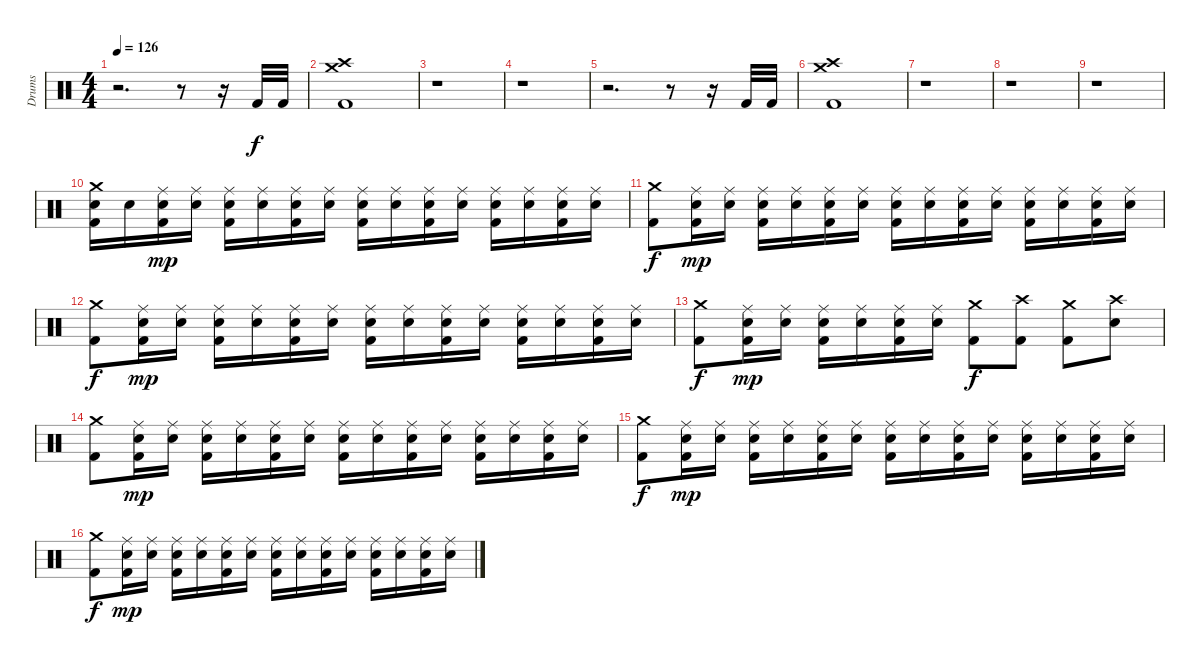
\track ("Drums" "Drums") {instrument percussion}
\staff {score}
\articulation defaults
\ts (4 4)
\tempo 126
\clef neutral
\ks c
r.2{d dy f} r.8 r.16 "Kick (hit) 2".32 "Kick (hit) 2".32 |
("Kick (hit) 2" "Crash high (hit)" "Crash medium (hit)").1 |
r.1 |
r.1 |
r.2{d} r.8 r.16 "Kick (hit) 2".32 "Kick (hit) 2".32 |
("Kick (hit) 2" "Crash high (hit)" "Crash medium (hit)").1 |
r.1 |
r.1 |
r.1 |
("Kick (hit) 2" "Electric Snare (hit)" "Crash medium (hit)").16 "Electric Snare (hit)".16 ("Kick (hit) 2" "Electric Snare (hit)" "Ride (middle)").16{dy mp} ("Electric Snare (hit)" "Ride (middle)").16 ("Kick (hit) 2" "Electric Snare (hit)" "Ride (middle)").16 ("Electric Snare (hit)" "Ride (middle)").16 ("Kick (hit) 2" "Electric Snare (hit)" "Ride (middle)").16 ("Electric Snare (hit)" "Ride (middle)").16 ("Kick (hit) 2" "Electric Snare (hit)" "Ride (middle)").16 ("Electric Snare (hit)" "Ride (middle)").16 ("Kick (hit) 2" "Electric Snare (hit)" "Ride (middle)").16 ("Electric Snare (hit)" "Ride (middle)").16 ("Kick (hit) 2" "Electric Snare (hit)" "Ride (middle)").16 ("Electric Snare (hit)" "Ride (middle)").16 ("Kick (hit) 2" "Electric Snare (hit)" "Ride (middle)").16 ("Electric Snare (hit)" "Ride (middle)").16 |
("Kick (hit) 2" "Crash medium (hit)").8{dy f} ("Kick (hit) 2" "Electric Snare (hit)" "Ride (middle)").16{dy mp} ("Electric Snare (hit)" "Ride (middle)").16 ("Kick (hit) 2" "Electric Snare (hit)" "Ride (middle)").16 ("Electric Snare (hit)" "Ride (middle)").16 ("Kick (hit) 2" "Electric Snare (hit)" "Ride (middle)").16 ("Electric Snare (hit)" "Ride (middle)").16 ("Kick (hit) 2" "Electric Snare (hit)" "Ride (middle)").16 ("Electric Snare (hit)" "Ride (middle)").16 ("Kick (hit) 2" "Electric Snare (hit)" "Ride (middle)").16 ("Electric Snare (hit)" "Ride (middle)").16 ("Kick (hit) 2" "Electric Snare (hit)" "Ride (middle)").16 ("Electric Snare (hit)" "Ride (middle)").16 ("Kick (hit) 2" "Electric Snare (hit)" "Ride (middle)").16 ("Electric Snare (hit)" "Ride (middle)").16 |
("Kick (hit) 2" "Crash medium (hit)").8{dy f} ("Kick (hit) 2" "Electric Snare (hit)" "Ride (middle)").16{dy mp} ("Electric Snare (hit)" "Ride (middle)").16 ("Kick (hit) 2" "Electric Snare (hit)" "Ride (middle)").16 ("Electric Snare (hit)" "Ride (middle)").16 ("Kick (hit) 2" "Electric Snare (hit)" "Ride (middle)").16 ("Electric Snare (hit)" "Ride (middle)").16 ("Kick (hit) 2" "Electric Snare (hit)" "Ride (middle)").16 ("Electric Snare (hit)" "Ride (middle)").16 ("Kick (hit) 2" "Electric Snare (hit)" "Ride (middle)").16 ("Electric Snare (hit)" "Ride (middle)").16 ("Kick (hit) 2" "Electric Snare (hit)" "Ride (middle)").16 ("Electric Snare (hit)" "Ride (middle)").16 ("Kick (hit) 2" "Electric Snare (hit)" "Ride (middle)").16 ("Electric Snare (hit)" "Ride (middle)").16 |
("Kick (hit) 2" "Crash medium (hit)").8{dy f} ("Kick (hit) 2" "Electric Snare (hit)" "Ride (middle)").16{dy mp} ("Electric Snare (hit)" "Ride (middle)").16 ("Kick (hit) 2" "Electric Snare (hit)" "Ride (middle)").16 ("Electric Snare (hit)" "Ride (middle)").16 ("Kick (hit) 2" "Electric Snare (hit)" "Ride (middle)").16 ("Electric Snare (hit)" "Ride (middle)").16 ("Kick (hit) 2" "Crash medium (hit)").8{dy f} ("Kick (hit) 2" "Crash high (hit)").8 ("Kick (hit) 2" "Crash medium (hit)").8 ("Electric Snare (hit)" "Crash high (hit)").8 |
("Kick (hit) 2" "Crash medium (hit)").8 ("Kick (hit) 2" "Electric Snare (hit)" "Ride (middle)").16{dy mp} ("Electric Snare (hit)" "Ride (middle)").16 ("Kick (hit) 2" "Electric Snare (hit)" "Ride (middle)").16 ("Electric Snare (hit)" "Ride (middle)").16 ("Kick (hit) 2" "Electric Snare (hit)" "Ride (middle)").16 ("Electric Snare (hit)" "Ride (middle)").16 ("Kick (hit) 2" "Electric Snare (hit)" "Ride (middle)").16 ("Electric Snare (hit)" "Ride (middle)").16 ("Kick (hit) 2" "Electric Snare (hit)" "Ride (middle)").16 ("Electric Snare (hit)" "Ride (middle)").16 ("Kick (hit) 2" "Electric Snare (hit)" "Ride (middle)").16 ("Electric Snare (hit)" "Ride (middle)").16 ("Kick (hit) 2" "Electric Snare (hit)" "Ride (middle)").16 ("Electric Snare (hit)" "Ride (middle)").16 |
("Kick (hit) 2" "Crash medium (hit)").8{dy f} ("Kick (hit) 2" "Electric Snare (hit)" "Ride (middle)").16{dy mp} ("Electric Snare (hit)" "Ride (middle)").16 ("Kick (hit) 2" "Electric Snare (hit)" "Ride (middle)").16 ("Electric Snare (hit)" "Ride (middle)").16 ("Kick (hit) 2" "Electric Snare (hit)" "Ride (middle)").16 ("Electric Snare (hit)" "Ride (middle)").16 ("Kick (hit) 2" "Electric Snare (hit)" "Ride (middle)").16 ("Electric Snare (hit)" "Ride (middle)").16 ("Kick (hit) 2" "Electric Snare (hit)" "Ride (middle)").16 ("Electric Snare (hit)" "Ride (middle)").16 ("Kick (hit) 2" "Electric Snare (hit)" "Ride (middle)").16 ("Electric Snare (hit)" "Ride (middle)").16 ("Kick (hit) 2" "Electric Snare (hit)" "Ride (middle)").16 ("Electric Snare (hit)" "Ride (middle)").16 |
("Kick (hit) 2" "Crash medium (hit)").8{dy f} ("Kick (hit) 2" "Electric Snare (hit)" "Ride (middle)").16{dy mp} ("Electric Snare (hit)" "Ride (middle)").16 ("Kick (hit) 2" "Electric Snare (hit)" "Ride (middle)").16 ("Electric Snare (hit)" "Ride (middle)").16 ("Kick (hit) 2" "Electric Snare (hit)" "Ride (middle)").16 ("Electric Snare (hit)" "Ride (middle)").16 ("Kick (hit) 2" "Electric Snare (hit)" "Ride (middle)").16 ("Electric Snare (hit)" "Ride (middle)").16 ("Kick (hit) 2" "Electric Snare (hit)" "Ride (middle)").16 ("Electric Snare (hit)" "Ride (middle)").16 ("Kick (hit) 2" "Electric Snare (hit)" "Ride (middle)").16 ("Electric Snare (hit)" "Ride (middle)").16 ("Kick (hit) 2" "Electric Snare (hit)" "Ride (middle)").16 ("Electric Snare (hit)" "Ride (middle)").16
